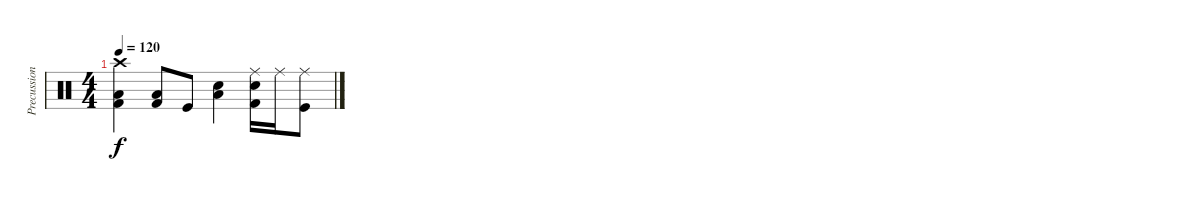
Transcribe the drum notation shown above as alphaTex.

\track ("Precussion" "Precussion") {instrument percussion}
\staff {score}
\articulation defaults
\ts (4 4)
\tempo 120
\clef neutral
\ks c
("Crash high (hit)" "Low Floor Tom (hit)" "Kick (hit) 2").4{dy f} ("Low Floor Tom (hit)" "Kick (hit) 2").8 "Kick (hit)".8 ("Electric Snare (hit)" "Low Floor Tom (hit)").4 ("Ride (middle)" "Electric Snare (hit)" "Kick (hit) 2").16 "Ride (middle)".16 ("Ride (middle)" "Kick (hit)").8
